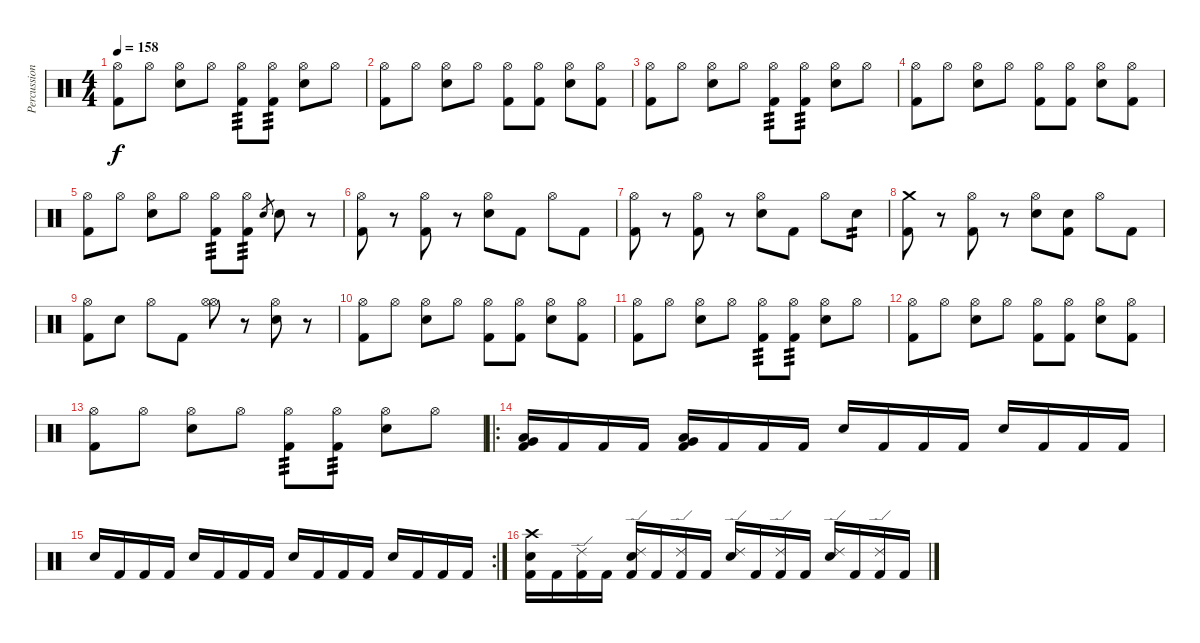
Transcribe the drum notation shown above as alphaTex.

\track ("Percussion" "Percussion") {instrument percussion}
\staff {score}
\articulation defaults
\ts (4 4)
\tempo 158
\clef neutral
\ks c
("Hi-Hat (open)" "Kick (hit) 2").8{dy f} "Hi-Hat (open)".8 ("Hi-Hat (open)" "Electric Snare (hit)").8 "Hi-Hat (open)".8 ("Hi-Hat (open)" "Kick (hit) 2").8{tp 3} ("Hi-Hat (open)" "Kick (hit) 2").8{tp 3} ("Hi-Hat (open)" "Electric Snare (hit)").8 "Hi-Hat (open)".8 |
("Hi-Hat (open)" "Kick (hit) 2").8 "Hi-Hat (open)".8 ("Hi-Hat (open)" "Electric Snare (hit)").8 "Hi-Hat (open)".8 ("Hi-Hat (open)" "Kick (hit) 2").8 ("Hi-Hat (open)" "Kick (hit) 2").8 ("Hi-Hat (open)" "Electric Snare (hit)").8 ("Hi-Hat (open)" "Kick (hit) 2").8 |
("Hi-Hat (open)" "Kick (hit) 2").8 "Hi-Hat (open)".8 ("Hi-Hat (open)" "Electric Snare (hit)").8 "Hi-Hat (open)".8 ("Hi-Hat (open)" "Kick (hit) 2").8{tp 3} ("Hi-Hat (open)" "Kick (hit) 2").8{tp 3} ("Hi-Hat (open)" "Electric Snare (hit)").8 "Hi-Hat (open)".8 |
("Hi-Hat (open)" "Kick (hit) 2").8 "Hi-Hat (open)".8 ("Hi-Hat (open)" "Electric Snare (hit)").8 "Hi-Hat (open)".8 ("Hi-Hat (open)" "Kick (hit) 2").8 ("Hi-Hat (open)" "Kick (hit) 2").8 ("Hi-Hat (open)" "Electric Snare (hit)").8 ("Hi-Hat (open)" "Kick (hit) 2").8 |
("Hi-Hat (open)" "Kick (hit) 2").8 "Hi-Hat (open)".8 ("Hi-Hat (open)" "Electric Snare (hit)").8 "Hi-Hat (open)".8 ("Hi-Hat (open)" "Kick (hit) 2").8{tp 3} ("Hi-Hat (open)" "Kick (hit) 2").8{tp 3} "Electric Snare (hit)".8{gr} "Electric Snare (hit)".8 r.8 |
("Hi-Hat (open)" "Kick (hit) 2").8 r.8 ("Hi-Hat (open)" "Kick (hit) 2").8 r.8 ("Hi-Hat (open)" "Electric Snare (hit)").8 "Kick (hit) 2".8 "Hi-Hat (open)".8 "Kick (hit) 2".8 |
("Hi-Hat (open)" "Kick (hit) 2").8 r.8 ("Hi-Hat (open)" "Kick (hit) 2").8 r.8 ("Hi-Hat (open)" "Electric Snare (hit)").8 "Kick (hit) 2".8 "Hi-Hat (open)".8 "Electric Snare (hit)".8{tp 2} |
("Crash medium (hit)" "Kick (hit) 2").8 r.8 ("Hi-Hat (open)" "Kick (hit) 2").8 r.8 ("Hi-Hat (open)" "Electric Snare (hit)").8 ("Electric Snare (hit)" "Kick (hit) 2").8 "Hi-Hat (open)".8 "Kick (hit) 2".8 |
("Hi-Hat (open)" "Kick (hit) 2").8 "Electric Snare (hit)".8 "Hi-Hat (open)".8 "Kick (hit) 2".8 ("Hi-Hat (open)" "Hi-Hat (open)").8 r.8 ("Hi-Hat (open)" "Electric Snare (hit)").8 r.8 |
("Hi-Hat (open)" "Kick (hit) 2").8 "Hi-Hat (open)".8 ("Hi-Hat (open)" "Electric Snare (hit)").8 "Hi-Hat (open)".8 ("Hi-Hat (open)" "Kick (hit) 2").8 ("Hi-Hat (open)" "Kick (hit) 2").8 ("Hi-Hat (open)" "Electric Snare (hit)").8 ("Hi-Hat (open)" "Kick (hit) 2").8 |
("Hi-Hat (open)" "Kick (hit) 2").8 "Hi-Hat (open)".8 ("Hi-Hat (open)" "Electric Snare (hit)").8 "Hi-Hat (open)".8 ("Hi-Hat (open)" "Kick (hit) 2").8{tp 3} ("Hi-Hat (open)" "Kick (hit) 2").8{tp 3} ("Hi-Hat (open)" "Electric Snare (hit)").8 "Hi-Hat (open)".8 |
("Hi-Hat (open)" "Kick (hit) 2").8 "Hi-Hat (open)".8 ("Hi-Hat (open)" "Electric Snare (hit)").8 "Hi-Hat (open)".8 ("Hi-Hat (open)" "Kick (hit) 2").8 ("Hi-Hat (open)" "Kick (hit) 2").8 ("Hi-Hat (open)" "Electric Snare (hit)").8 ("Hi-Hat (open)" "Kick (hit) 2").8 |
("Hi-Hat (open)" "Kick (hit) 2").8 "Hi-Hat (open)".8 ("Hi-Hat (open)" "Electric Snare (hit)").8 "Hi-Hat (open)".8 ("Hi-Hat (open)" "Kick (hit) 2").8{tp 3} ("Hi-Hat (open)" "Kick (hit) 2").8{tp 3} ("Hi-Hat (open)" "Electric Snare (hit)").8 "Hi-Hat (open)".8 |
\ro
("Very Low Tom (hit)" "Low Tom (hit)" "Kick (hit) 2").16 "Kick (hit) 2".16 "Kick (hit) 2".16 "Kick (hit) 2".16 ("Very Low Tom (hit)" "Low Tom (hit)" "Kick (hit) 2").16 "Kick (hit) 2".16 "Kick (hit) 2".16 "Kick (hit) 2".16 "Electric Snare (hit)".16 "Kick (hit) 2".16 "Kick (hit) 2".16 "Kick (hit) 2".16 "Electric Snare (hit)".16 "Kick (hit) 2".16 "Kick (hit) 2".16 "Kick (hit) 2".16 |
\rc 2 "Electric Snare (hit)".16 "Kick (hit) 2".16 "Kick (hit) 2".16 "Kick (hit) 2".16 "Electric Snare (hit)".16 "Kick (hit) 2".16 "Kick (hit) 2".16 "Kick (hit) 2".16 "Electric Snare (hit)".16 "Kick (hit) 2".16 "Kick (hit) 2".16 "Kick (hit) 2".16 "Electric Snare (hit)".16 "Kick (hit) 2".16 "Kick (hit) 2".16 "Kick (hit) 2".16
|
("Crash high (hit)" "Electric Snare (hit)" "Kick (hit) 2").16 "Kick (hit) 2".16 ("Ride (edge) 2" "Kick (hit) 2").16 "Kick (hit) 2".16 ("Ride (edge) 2" "Electric Snare (hit)" "Kick (hit) 2").16 "Kick (hit) 2".16 ("Ride (edge) 2" "Kick (hit) 2").16 "Kick (hit) 2".16 ("Ride (edge) 2" "Electric Snare (hit)").16 "Kick (hit) 2".16 ("Ride (edge) 2" "Kick (hit) 2").16 "Kick (hit) 2".16 ("Ride (edge) 2" "Electric Snare (hit)").16 "Kick (hit) 2".16 ("Ride (edge) 2" "Kick (hit) 2").16 "Kick (hit) 2".16
